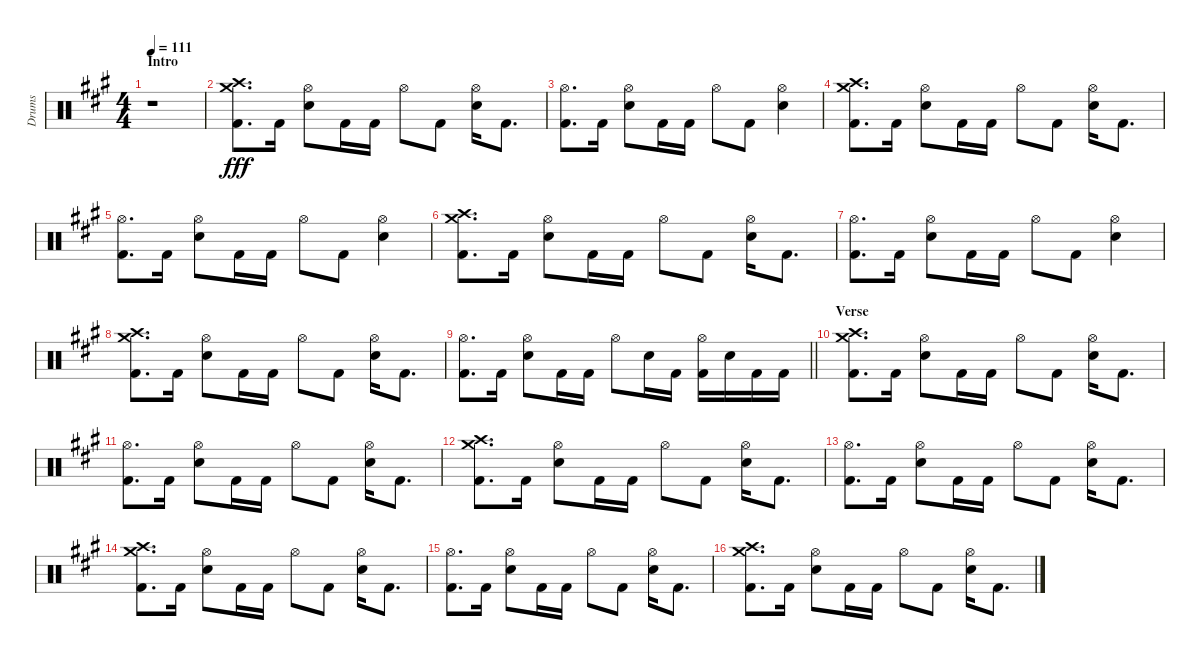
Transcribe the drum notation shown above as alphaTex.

\track ("Drums" "Drums") {instrument percussion}
\staff {score}
\articulation defaults
\ts (4 4)
\section ("" "Intro")
\tempo 111
\clef neutral
\ks a
r.1{dy fff} |
("Crash medium (hit)" "Crash high (hit)" "Kick (hit) 2").8{d} "Kick (hit) 2".16 ("Hi-Hat (open)" "Snare (hit) 2").8 "Kick (hit) 2".16 "Kick (hit) 2".16 "Hi-Hat (open)".8 "Kick (hit) 2".8 ("Hi-Hat (open)" "Snare (hit) 2").16 "Kick (hit) 2".8{d} |
("Hi-Hat (open)" "Kick (hit) 2").8{d} "Kick (hit) 2".16 ("Hi-Hat (open)" "Snare (hit) 2").8 "Kick (hit) 2".16 "Kick (hit) 2".16 "Hi-Hat (open)".8 "Kick (hit) 2".8 ("Hi-Hat (open)" "Snare (hit) 2").4 |
("Crash medium (hit)" "Crash high (hit)" "Kick (hit) 2").8{d} "Kick (hit) 2".16 ("Hi-Hat (open)" "Snare (hit) 2").8 "Kick (hit) 2".16 "Kick (hit) 2".16 "Hi-Hat (open)".8 "Kick (hit) 2".8 ("Hi-Hat (open)" "Snare (hit) 2").16 "Kick (hit) 2".8{d} |
("Hi-Hat (open)" "Kick (hit) 2").8{d} "Kick (hit) 2".16 ("Hi-Hat (open)" "Snare (hit) 2").8 "Kick (hit) 2".16 "Kick (hit) 2".16 "Hi-Hat (open)".8 "Kick (hit) 2".8 ("Hi-Hat (open)" "Snare (hit) 2").4 |
("Crash medium (hit)" "Crash high (hit)" "Kick (hit) 2").8{d} "Kick (hit) 2".16 ("Hi-Hat (open)" "Snare (hit) 2").8 "Kick (hit) 2".16 "Kick (hit) 2".16 "Hi-Hat (open)".8 "Kick (hit) 2".8 ("Hi-Hat (open)" "Snare (hit) 2").16 "Kick (hit) 2".8{d} |
("Hi-Hat (open)" "Kick (hit) 2").8{d} "Kick (hit) 2".16 ("Hi-Hat (open)" "Snare (hit) 2").8 "Kick (hit) 2".16 "Kick (hit) 2".16 "Hi-Hat (open)".8 "Kick (hit) 2".8 ("Hi-Hat (open)" "Snare (hit) 2").4 |
("Crash medium (hit)" "Crash high (hit)" "Kick (hit) 2").8{d} "Kick (hit) 2".16 ("Hi-Hat (open)" "Snare (hit) 2").8 "Kick (hit) 2".16 "Kick (hit) 2".16 "Hi-Hat (open)".8 "Kick (hit) 2".8 ("Hi-Hat (open)" "Snare (hit) 2").16 "Kick (hit) 2".8{d} |
\barLineRight lightlight
("Hi-Hat (open)" "Kick (hit) 2").8{d} "Kick (hit) 2".16 ("Hi-Hat (open)" "Snare (hit) 2").8 "Kick (hit) 2".16 "Kick (hit) 2".16 "Hi-Hat (open)".8 "Snare (hit) 2".16 "Kick (hit) 2".16 ("Hi-Hat (open)" "Kick (hit) 2").16 "Snare (hit) 2".16 "Kick (hit) 2".16 "Kick (hit) 2".16 |
\section ("" "Verse")
("Crash medium (hit)" "Crash high (hit)" "Kick (hit) 2").8{d} "Kick (hit) 2".16 ("Hi-Hat (open)" "Snare (hit) 2").8 "Kick (hit) 2".16 "Kick (hit) 2".16 "Hi-Hat (open)".8 "Kick (hit) 2".8 ("Hi-Hat (open)" "Snare (hit) 2").16 "Kick (hit) 2".8{d} |
("Hi-Hat (open)" "Kick (hit) 2").8{d} "Kick (hit) 2".16 ("Hi-Hat (open)" "Snare (hit) 2").8 "Kick (hit) 2".16 "Kick (hit) 2".16 "Hi-Hat (open)".8 "Kick (hit) 2".8 ("Hi-Hat (open)" "Snare (hit) 2").16 "Kick (hit) 2".8{d} |
("Crash medium (hit)" "Crash high (hit)" "Kick (hit) 2").8{d} "Kick (hit) 2".16 ("Hi-Hat (open)" "Snare (hit) 2").8 "Kick (hit) 2".16 "Kick (hit) 2".16 "Hi-Hat (open)".8 "Kick (hit) 2".8 ("Hi-Hat (open)" "Snare (hit) 2").16 "Kick (hit) 2".8{d} |
("Hi-Hat (open)" "Kick (hit) 2").8{d} "Kick (hit) 2".16 ("Hi-Hat (open)" "Snare (hit) 2").8 "Kick (hit) 2".16 "Kick (hit) 2".16 "Hi-Hat (open)".8 "Kick (hit) 2".8 ("Hi-Hat (open)" "Snare (hit) 2").16 "Kick (hit) 2".8{d} |
("Crash medium (hit)" "Crash high (hit)" "Kick (hit) 2").8{d} "Kick (hit) 2".16 ("Hi-Hat (open)" "Snare (hit) 2").8 "Kick (hit) 2".16 "Kick (hit) 2".16 "Hi-Hat (open)".8 "Kick (hit) 2".8 ("Hi-Hat (open)" "Snare (hit) 2").16 "Kick (hit) 2".8{d} |
("Hi-Hat (open)" "Kick (hit) 2").8{d} "Kick (hit) 2".16 ("Hi-Hat (open)" "Snare (hit) 2").8 "Kick (hit) 2".16 "Kick (hit) 2".16 "Hi-Hat (open)".8 "Kick (hit) 2".8 ("Hi-Hat (open)" "Snare (hit) 2").16 "Kick (hit) 2".8{d} |
("Crash medium (hit)" "Crash high (hit)" "Kick (hit) 2").8{d} "Kick (hit) 2".16 ("Hi-Hat (open)" "Snare (hit) 2").8 "Kick (hit) 2".16 "Kick (hit) 2".16 "Hi-Hat (open)".8 "Kick (hit) 2".8 ("Hi-Hat (open)" "Snare (hit) 2").16 "Kick (hit) 2".8{d}
